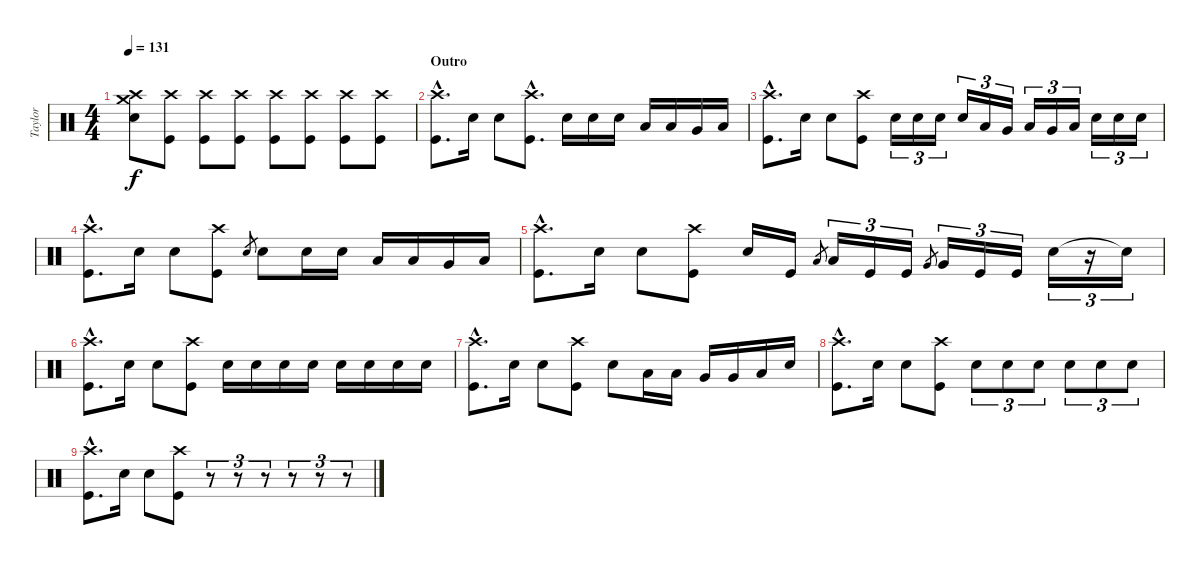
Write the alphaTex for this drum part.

\track ("Taylor" "Taylor") {instrument percussion}
\staff {score}
\articulation defaults
\ts (4 4)
\tempo 131
\clef neutral
\ks c
("Crash medium (hit)" "Crash high (hit)" "Snare (hit) 2").8{dy f} ("Crash high (hit)" "Kick (hit)").8 ("Crash high (hit)" "Kick (hit)").8 ("Crash high (hit)" "Kick (hit)").8 ("Crash high (hit)" "Kick (hit)").8 ("Crash high (hit)" "Kick (hit)").8 ("Crash high (hit)" "Kick (hit)").8 ("Crash high (hit)" "Kick (hit)").8 |
\section ("" "Outro")
("Crash high (hit)"{hac} "Kick (hit)"{hac}).8{d} "Snare (hit) 2".16 "Snare (hit) 2".8 ("Crash high (hit)"{hac} "Kick (hit)"{hac}).8{d} "Snare (hit) 2".16 "Snare (hit) 2".16 "Snare (hit) 2".16 "Low Tom (hit)".16 "Low Tom (hit)".16 "Very Low Tom (hit)".16 "Low Floor Tom (hit)".16 |
("Crash high (hit)"{hac} "Kick (hit)"{hac}).8{d} "Snare (hit) 2".16 "Snare (hit) 2".8 ("Crash high (hit)" "Kick (hit)").8 "Snare (hit) 2".16{tu (3 2)} "Snare (hit) 2".16{tu (3 2)} "Snare (hit) 2".16{tu (3 2)} "Snare (hit) 2".16{tu (3 2)} "Low Tom (hit)".16{tu (3 2)} "Very Low Tom (hit)".16{tu (3 2)} "Low Floor Tom (hit)".16{tu (3 2)} "Very Low Tom (hit)".16{tu (3 2)} "Low Tom (hit)".16{tu (3 2)} "Snare (hit) 2".16{tu (3 2)} "Snare (hit) 2".16{tu (3 2)} "Snare (hit) 2".16{tu (3 2)} |
("Crash high (hit)"{hac} "Kick (hit)"{hac}).8{d} "Snare (hit) 2".16 "Snare (hit) 2".8 ("Crash high (hit)" "Kick (hit)").8 "Snare (hit) 2".8{gr} "Snare (hit) 2".8 "Snare (hit) 2".16 "Snare (hit) 2".16 "Low Tom (hit)".16 "Low Tom (hit)".16 "Very Low Tom (hit)".16 "Low Floor Tom (hit)".16 |
("Crash high (hit)"{hac} "Kick (hit)"{hac}).8{d} "Snare (hit) 2".16 "Snare (hit) 2".8 ("Crash high (hit)" "Kick (hit)").8 "Snare (hit) 2".16 "Kick (hit)".16 "Low Tom (hit)".8{gr} "Low Tom (hit)".16{tu (3 2)} "Kick (hit)".16{tu (3 2)} "Kick (hit)".16{tu (3 2)} "Very Low Tom (hit)".8{gr} "Very Low Tom (hit)".16{tu (3 2)} "Kick (hit)".16{tu (3 2)} "Kick (hit)".16{tu (3 2)} "Snare (hit) 2".16{tu (3 2)} r.16{tu (3 2)} "Snare (hit)"{t}.16{tu (3 2)} |
("Crash high (hit)"{hac} "Kick (hit)"{hac}).8{d} "Snare (hit) 2".16 "Snare (hit) 2".8 ("Crash high (hit)" "Kick (hit)").8 "Snare (hit) 2".16 "Snare (hit) 2".16 "Snare (hit) 2".16 "Snare (hit) 2".16 "Snare (hit) 2".16 "Snare (hit) 2".16 "Snare (hit) 2".16 "Snare (hit) 2".16 |
("Crash high (hit)"{hac} "Kick (hit)"{hac}).8{d} "Snare (hit) 2".16 "Snare (hit) 2".8 ("Crash high (hit)" "Kick (hit)").8 "Snare (hit) 2".8 "Low Tom (hit)".16 "Low Tom (hit)".16 "Very Low Tom (hit)".16 "Very Low Tom (hit)".16 "Low Floor Tom (hit)".16 "Snare (hit) 2".16 |
("Crash high (hit)"{hac} "Kick (hit)"{hac}).8{d} "Snare (hit) 2".16 "Snare (hit) 2".8 ("Crash high (hit)" "Kick (hit)").8 "Snare (hit) 2".8{tu (3 2)} "Snare (hit) 2".8{tu (3 2)} "Snare (hit) 2".8{tu (3 2)} "Snare (hit) 2".8{tu (3 2)} "Snare (hit) 2".8{tu (3 2)} "Snare (hit) 2".8{tu (3 2)} |
("Crash high (hit)"{hac} "Kick (hit)"{hac}).8{d} "Snare (hit) 2".16 "Snare (hit) 2".8 ("Crash high (hit)" "Kick (hit)").8 r.8{tu (3 2)} r.8{tu (3 2)} r.8{tu (3 2)} r.8{tu (3 2)} r.8{tu (3 2)} r.8{tu (3 2)}
